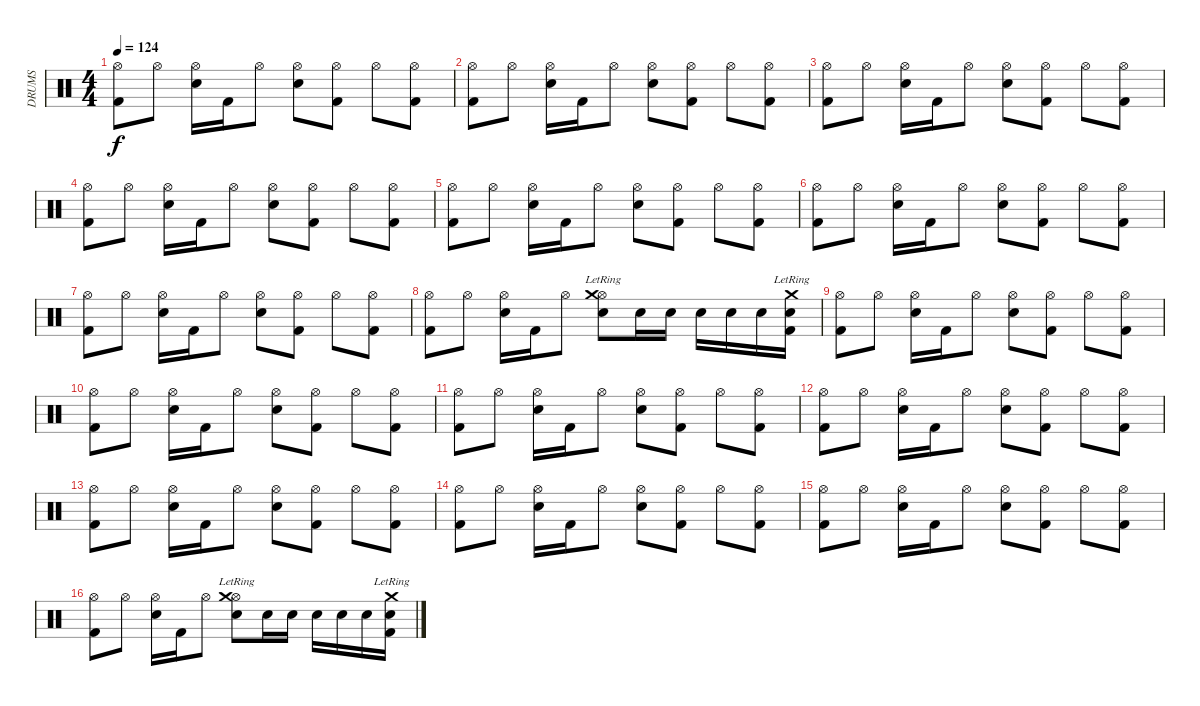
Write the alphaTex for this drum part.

\track ("DRUMS" "DRUMS") {instrument percussion}
\staff {score}
\articulation defaults
\ts (4 4)
\tempo 124
\clef neutral
\ks c
("Kick (hit) 2" "Hi-Hat (open)").8{dy f} "Hi-Hat (open)".8 ("Snare (hit) 2" "Hi-Hat (open)").16 "Kick (hit) 2".16 "Hi-Hat (open)".8 ("Snare (hit) 2" "Hi-Hat (open)").8 ("Kick (hit) 2" "Hi-Hat (open)").8 "Hi-Hat (open)".8 ("Kick (hit) 2" "Hi-Hat (open)").8 |
("Kick (hit) 2" "Hi-Hat (open)").8 "Hi-Hat (open)".8 ("Snare (hit) 2" "Hi-Hat (open)").16 "Kick (hit) 2".16 "Hi-Hat (open)".8 ("Snare (hit) 2" "Hi-Hat (open)").8 ("Kick (hit) 2" "Hi-Hat (open)").8 "Hi-Hat (open)".8 ("Kick (hit) 2" "Hi-Hat (open)").8 |
("Kick (hit) 2" "Hi-Hat (open)").8 "Hi-Hat (open)".8 ("Snare (hit) 2" "Hi-Hat (open)").16 "Kick (hit) 2".16 "Hi-Hat (open)".8 ("Snare (hit) 2" "Hi-Hat (open)").8 ("Kick (hit) 2" "Hi-Hat (open)").8 "Hi-Hat (open)".8 ("Kick (hit) 2" "Hi-Hat (open)").8 |
("Kick (hit) 2" "Hi-Hat (open)").8 "Hi-Hat (open)".8 ("Snare (hit) 2" "Hi-Hat (open)").16 "Kick (hit) 2".16 "Hi-Hat (open)".8 ("Snare (hit) 2" "Hi-Hat (open)").8 ("Kick (hit) 2" "Hi-Hat (open)").8 "Hi-Hat (open)".8 ("Kick (hit) 2" "Hi-Hat (open)").8 |
("Kick (hit) 2" "Hi-Hat (open)").8 "Hi-Hat (open)".8 ("Snare (hit) 2" "Hi-Hat (open)").16 "Kick (hit) 2".16 "Hi-Hat (open)".8 ("Snare (hit) 2" "Hi-Hat (open)").8 ("Kick (hit) 2" "Hi-Hat (open)").8 "Hi-Hat (open)".8 ("Kick (hit) 2" "Hi-Hat (open)").8 |
("Kick (hit) 2" "Hi-Hat (open)").8 "Hi-Hat (open)".8 ("Snare (hit) 2" "Hi-Hat (open)").16 "Kick (hit) 2".16 "Hi-Hat (open)".8 ("Snare (hit) 2" "Hi-Hat (open)").8 ("Kick (hit) 2" "Hi-Hat (open)").8 "Hi-Hat (open)".8 ("Kick (hit) 2" "Hi-Hat (open)").8 |
("Kick (hit) 2" "Hi-Hat (open)").8 "Hi-Hat (open)".8 ("Snare (hit) 2" "Hi-Hat (open)").16 "Kick (hit) 2".16 "Hi-Hat (open)".8 ("Snare (hit) 2" "Hi-Hat (open)").8 ("Kick (hit) 2" "Hi-Hat (open)").8 "Hi-Hat (open)".8 ("Kick (hit) 2" "Hi-Hat (open)").8 |
("Kick (hit) 2" "Hi-Hat (open)").8 "Hi-Hat (open)".8 ("Snare (hit) 2" "Hi-Hat (open)").16 "Kick (hit) 2".16 "Hi-Hat (open)".8 ("Snare (hit) 2" "Hi-Hat (open)" "Crash medium (hit)"{lr}).8 "Snare (hit) 2".16 "Snare (hit) 2".16 "Snare (hit) 2".16 "Snare (hit) 2".16 "Snare (hit) 2".16 ("Kick (hit) 2" "Snare (hit) 2" "Crash medium (hit)"{lr}).16 |
("Kick (hit) 2" "Hi-Hat (open)").8 "Hi-Hat (open)".8 ("Snare (hit) 2" "Hi-Hat (open)").16 "Kick (hit) 2".16 "Hi-Hat (open)".8 ("Snare (hit) 2" "Hi-Hat (open)").8 ("Kick (hit) 2" "Hi-Hat (open)").8 "Hi-Hat (open)".8 ("Kick (hit) 2" "Hi-Hat (open)").8 |
("Kick (hit) 2" "Hi-Hat (open)").8 "Hi-Hat (open)".8 ("Snare (hit) 2" "Hi-Hat (open)").16 "Kick (hit) 2".16 "Hi-Hat (open)".8 ("Snare (hit) 2" "Hi-Hat (open)").8 ("Kick (hit) 2" "Hi-Hat (open)").8 "Hi-Hat (open)".8 ("Kick (hit) 2" "Hi-Hat (open)").8 |
("Kick (hit) 2" "Hi-Hat (open)").8 "Hi-Hat (open)".8 ("Snare (hit) 2" "Hi-Hat (open)").16 "Kick (hit) 2".16 "Hi-Hat (open)".8 ("Snare (hit) 2" "Hi-Hat (open)").8 ("Kick (hit) 2" "Hi-Hat (open)").8 "Hi-Hat (open)".8 ("Kick (hit) 2" "Hi-Hat (open)").8 |
("Kick (hit) 2" "Hi-Hat (open)").8 "Hi-Hat (open)".8 ("Snare (hit) 2" "Hi-Hat (open)").16 "Kick (hit) 2".16 "Hi-Hat (open)".8 ("Snare (hit) 2" "Hi-Hat (open)").8 ("Kick (hit) 2" "Hi-Hat (open)").8 "Hi-Hat (open)".8 ("Kick (hit) 2" "Hi-Hat (open)").8 |
("Kick (hit) 2" "Hi-Hat (open)").8 "Hi-Hat (open)".8 ("Snare (hit) 2" "Hi-Hat (open)").16 "Kick (hit) 2".16 "Hi-Hat (open)".8 ("Snare (hit) 2" "Hi-Hat (open)").8 ("Kick (hit) 2" "Hi-Hat (open)").8 "Hi-Hat (open)".8 ("Kick (hit) 2" "Hi-Hat (open)").8 |
("Kick (hit) 2" "Hi-Hat (open)").8 "Hi-Hat (open)".8 ("Snare (hit) 2" "Hi-Hat (open)").16 "Kick (hit) 2".16 "Hi-Hat (open)".8 ("Snare (hit) 2" "Hi-Hat (open)").8 ("Kick (hit) 2" "Hi-Hat (open)").8 "Hi-Hat (open)".8 ("Kick (hit) 2" "Hi-Hat (open)").8 |
("Kick (hit) 2" "Hi-Hat (open)").8 "Hi-Hat (open)".8 ("Snare (hit) 2" "Hi-Hat (open)").16 "Kick (hit) 2".16 "Hi-Hat (open)".8 ("Snare (hit) 2" "Hi-Hat (open)").8 ("Kick (hit) 2" "Hi-Hat (open)").8 "Hi-Hat (open)".8 ("Kick (hit) 2" "Hi-Hat (open)").8 |
("Kick (hit) 2" "Hi-Hat (open)").8 "Hi-Hat (open)".8 ("Snare (hit) 2" "Hi-Hat (open)").16 "Kick (hit) 2".16 "Hi-Hat (open)".8 ("Snare (hit) 2" "Hi-Hat (open)" "Crash medium (hit)"{lr}).8 "Snare (hit) 2".16 "Snare (hit) 2".16 "Snare (hit) 2".16 "Snare (hit) 2".16 "Snare (hit) 2".16 ("Kick (hit) 2" "Snare (hit) 2" "Crash medium (hit)"{lr}).16
